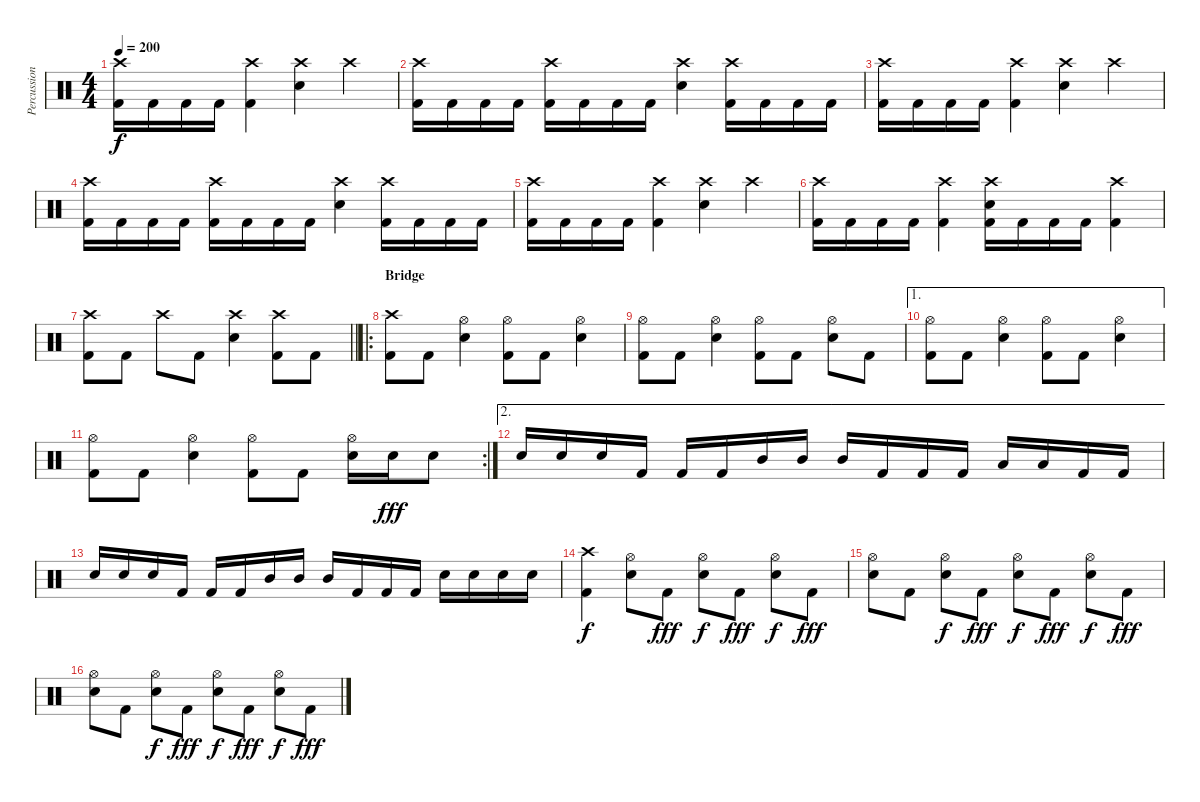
\track ("Percussion" "Percussion") {instrument percussion}
\staff {score}
\articulation defaults
\ts (4 4)
\tempo 200
\clef neutral
\ks c
("Crash high (hit)" "Kick (hit) 2").16{dy f} "Kick (hit) 2".16 "Kick (hit) 2".16 "Kick (hit) 2".16 ("Crash high (hit)" "Kick (hit) 2").4 ("Crash high (hit)" "Electric Snare (hit)").4 "Crash high (hit)".4 |
("Crash high (hit)" "Kick (hit) 2").16 "Kick (hit) 2".16 "Kick (hit) 2".16 "Kick (hit) 2".16 ("Crash high (hit)" "Kick (hit) 2").16 "Kick (hit) 2".16 "Kick (hit) 2".16 "Kick (hit) 2".16 ("Crash high (hit)" "Electric Snare (hit)").4 ("Crash high (hit)" "Kick (hit) 2").16 "Kick (hit) 2".16 "Kick (hit) 2".16 "Kick (hit) 2".16 |
("Crash high (hit)" "Kick (hit) 2").16 "Kick (hit) 2".16 "Kick (hit) 2".16 "Kick (hit) 2".16 ("Crash high (hit)" "Kick (hit) 2").4 ("Crash high (hit)" "Electric Snare (hit)").4 "Crash high (hit)".4 |
("Crash high (hit)" "Kick (hit) 2").16 "Kick (hit) 2".16 "Kick (hit) 2".16 "Kick (hit) 2".16 ("Crash high (hit)" "Kick (hit) 2").16 "Kick (hit) 2".16 "Kick (hit) 2".16 "Kick (hit) 2".16 ("Crash high (hit)" "Electric Snare (hit)").4 ("Crash high (hit)" "Kick (hit) 2").16 "Kick (hit) 2".16 "Kick (hit) 2".16 "Kick (hit) 2".16 |
("Crash high (hit)" "Kick (hit) 2").16 "Kick (hit) 2".16 "Kick (hit) 2".16 "Kick (hit) 2".16 ("Crash high (hit)" "Kick (hit) 2").4 ("Crash high (hit)" "Electric Snare (hit)").4 "Crash high (hit)".4 |
("Crash high (hit)" "Kick (hit) 2").16 "Kick (hit) 2".16 "Kick (hit) 2".16 "Kick (hit) 2".16 ("Crash high (hit)" "Kick (hit) 2").4 ("Crash high (hit)" "Electric Snare (hit)" "Kick (hit) 2").16 "Kick (hit) 2".16 "Kick (hit) 2".16 "Kick (hit) 2".16 ("Crash high (hit)" "Kick (hit) 2").4 |
\barLineRight lightlight
("Crash high (hit)" "Kick (hit) 2").8 "Kick (hit) 2".8 "Crash high (hit)".8 "Kick (hit) 2".8 ("Crash high (hit)" "Electric Snare (hit)").4 ("Crash high (hit)" "Kick (hit) 2").8 "Kick (hit) 2".8 |
\ro
\section ("" "Bridge")
("Crash high (hit)" "Kick (hit) 2").8 "Kick (hit) 2".8 ("Hi-Hat (open)" "Electric Snare (hit)").4 ("Hi-Hat (open)" "Kick (hit) 2").8 "Kick (hit) 2".8 ("Hi-Hat (open)" "Electric Snare (hit)").4 |
("Hi-Hat (open)" "Kick (hit) 2").8 "Kick (hit) 2".8 ("Hi-Hat (open)" "Electric Snare (hit)").4 ("Hi-Hat (open)" "Kick (hit) 2").8 "Kick (hit) 2".8 ("Hi-Hat (open)" "Electric Snare (hit)").8 "Kick (hit) 2".8 |
\ae 1
("Hi-Hat (open)" "Kick (hit) 2").8 "Kick (hit) 2".8 ("Hi-Hat (open)" "Electric Snare (hit)").4 ("Hi-Hat (open)" "Kick (hit) 2").8 "Kick (hit) 2".8 ("Hi-Hat (open)" "Electric Snare (hit)").4 |
\rc 2
("Hi-Hat (open)" "Kick (hit) 2").8 "Kick (hit) 2".8 ("Hi-Hat (open)" "Electric Snare (hit)").4 ("Hi-Hat (open)" "Kick (hit) 2").8 "Kick (hit) 2".8 ("Hi-Hat (open)" "Electric Snare (hit)").16 "Electric Snare (hit)".16{dy fff} "Electric Snare (hit)".8 |
\ae 2 "Electric Snare (hit)".16 "Electric Snare (hit)".16 "Electric Snare (hit)".16 "Kick (hit) 2".16 "Kick (hit) 2".16 "Kick (hit) 2".16 "Mid Tom (hit)".16 "Mid Tom (hit)".16 "Mid Tom (hit)".16 "Kick (hit) 2".16 "Kick (hit) 2".16 "Kick (hit) 2".16 "Low Tom (hit)".16 "Low Tom (hit)".16 "Kick (hit) 2".16 "Kick (hit) 2".16
|
"Electric Snare (hit)".16 "Electric Snare (hit)".16 "Electric Snare (hit)".16 "Kick (hit) 2".16 "Kick (hit) 2".16 "Kick (hit) 2".16 "Mid Tom (hit)".16 "Mid Tom (hit)".16 "Mid Tom (hit)".16 "Kick (hit) 2".16 "Kick (hit) 2".16 "Kick (hit) 2".16 "Electric Snare (hit)".16 "Electric Snare (hit)".16 "Electric Snare (hit)".16 "Electric Snare (hit)".16 |
("Crash high (hit)" "Kick (hit) 2").4{dy f} ("Hi-Hat (open)" "Electric Snare (hit)").8 "Kick (hit) 2".8{dy fff} ("Hi-Hat (open)" "Electric Snare (hit)").8{dy f} "Kick (hit) 2".8{dy fff} ("Hi-Hat (open)" "Electric Snare (hit)").8{dy f} "Kick (hit) 2".8{dy fff} |
("Hi-Hat (open)" "Electric Snare (hit)").8 "Kick (hit) 2".8 ("Hi-Hat (open)" "Electric Snare (hit)").8{dy f} "Kick (hit) 2".8{dy fff} ("Hi-Hat (open)" "Electric Snare (hit)").8{dy f} "Kick (hit) 2".8{dy fff} ("Hi-Hat (open)" "Electric Snare (hit)").8{dy f} "Kick (hit) 2".8{dy fff} |
("Hi-Hat (open)" "Electric Snare (hit)").8 "Kick (hit) 2".8 ("Hi-Hat (open)" "Electric Snare (hit)").8{dy f} "Kick (hit) 2".8{dy fff} ("Hi-Hat (open)" "Electric Snare (hit)").8{dy f} "Kick (hit) 2".8{dy fff} ("Hi-Hat (open)" "Electric Snare (hit)").8{dy f} "Kick (hit) 2".8{dy fff}
